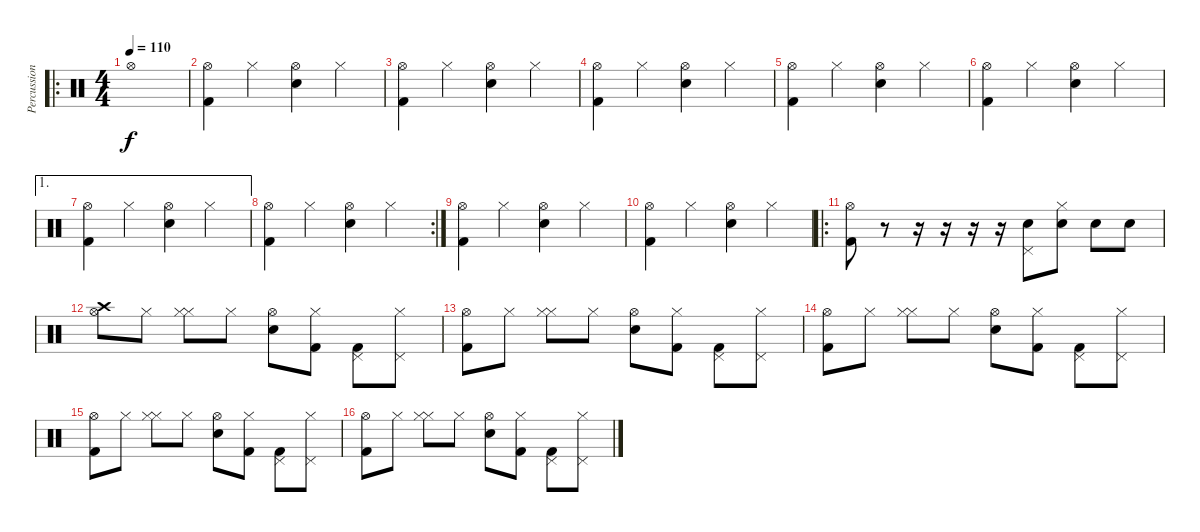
\track ("Percussion" "Percussion") {instrument percussion}
\staff {score}
\articulation defaults
\ro
\ts (4 4)
\tempo 110
\clef neutral
\ks c "Hi-Hat (open)".1{dy f}
|
("Kick (hit) 2" "Hi-Hat (open)").4 "Hi-Hat (closed)".4 ("Snare (hit) 2" "Hi-Hat (open)").4 "Hi-Hat (closed)".4 |
("Kick (hit) 2" "Hi-Hat (open)").4 "Hi-Hat (closed)".4 ("Snare (hit) 2" "Hi-Hat (open)").4 "Hi-Hat (closed)".4 |
("Kick (hit) 2" "Hi-Hat (open)").4 "Hi-Hat (closed)".4 ("Snare (hit) 2" "Hi-Hat (open)").4 "Hi-Hat (closed)".4 |
("Kick (hit) 2" "Hi-Hat (open)").4 "Hi-Hat (closed)".4 ("Snare (hit) 2" "Hi-Hat (open)").4 "Hi-Hat (closed)".4 |
("Kick (hit) 2" "Hi-Hat (open)").4 "Hi-Hat (closed)".4 ("Snare (hit) 2" "Hi-Hat (open)").4 "Hi-Hat (closed)".4 |
\ae 1
("Kick (hit) 2" "Hi-Hat (open)").4 "Hi-Hat (closed)".4 ("Snare (hit) 2" "Hi-Hat (open)").4 "Hi-Hat (closed)".4 |
\rc 2
("Kick (hit) 2" "Hi-Hat (open)").4 "Hi-Hat (closed)".4 ("Snare (hit) 2" "Hi-Hat (open)").4 "Hi-Hat (closed)".4 |
("Kick (hit) 2" "Hi-Hat (open)").4 "Hi-Hat (closed)".4 ("Snare (hit) 2" "Hi-Hat (open)").4 "Hi-Hat (closed)".4 |
("Kick (hit) 2" "Hi-Hat (open)").4 "Hi-Hat (closed)".4 ("Snare (hit) 2" "Hi-Hat (open)").4 "Hi-Hat (closed)".4 |
\ro
("Kick (hit) 2" "Hi-Hat (open)").8 r.8 r.16 r.16 r.16 r.16 ("Snare (hit) 2" "Pedal Hi-Hat (hit)").8 ("Snare (hit) 2" "Hi-Hat (closed)").8 "Snare (hit) 2".8 "Snare (hit) 2".8 |
("Crash high (hit)" "Hi-Hat (open)").8 "Hi-Hat (closed)".8 ("Hi-Hat (closed)" "Hi-Hat (closed)").8 "Hi-Hat (closed)".8 ("Snare (hit) 2" "Hi-Hat (open)").8 ("Kick (hit) 2" "Hi-Hat (closed)").8 ("Kick (hit) 2" "Pedal Hi-Hat (hit)").8 ("Pedal Hi-Hat (hit)" "Hi-Hat (closed)").8 |
("Kick (hit) 2" "Hi-Hat (open)").8 "Hi-Hat (closed)".8 ("Hi-Hat (closed)" "Hi-Hat (closed)").8 "Hi-Hat (closed)".8 ("Snare (hit) 2" "Hi-Hat (open)").8 ("Kick (hit) 2" "Hi-Hat (closed)").8 ("Kick (hit) 2" "Pedal Hi-Hat (hit)").8 ("Pedal Hi-Hat (hit)" "Hi-Hat (closed)").8 |
("Kick (hit) 2" "Hi-Hat (open)").8 "Hi-Hat (closed)".8 ("Hi-Hat (closed)" "Hi-Hat (closed)").8 "Hi-Hat (closed)".8 ("Snare (hit) 2" "Hi-Hat (open)").8 ("Kick (hit) 2" "Hi-Hat (closed)").8 ("Kick (hit) 2" "Pedal Hi-Hat (hit)").8 ("Pedal Hi-Hat (hit)" "Hi-Hat (closed)").8 |
("Kick (hit) 2" "Hi-Hat (open)").8 "Hi-Hat (closed)".8 ("Hi-Hat (closed)" "Hi-Hat (closed)").8 "Hi-Hat (closed)".8 ("Snare (hit) 2" "Hi-Hat (open)").8 ("Kick (hit) 2" "Hi-Hat (closed)").8 ("Kick (hit) 2" "Pedal Hi-Hat (hit)").8 ("Pedal Hi-Hat (hit)" "Hi-Hat (closed)").8 |
("Kick (hit) 2" "Hi-Hat (open)").8 "Hi-Hat (closed)".8 ("Hi-Hat (closed)" "Hi-Hat (closed)").8 "Hi-Hat (closed)".8 ("Snare (hit) 2" "Hi-Hat (open)").8 ("Kick (hit) 2" "Hi-Hat (closed)").8 ("Kick (hit) 2" "Pedal Hi-Hat (hit)").8 ("Pedal Hi-Hat (hit)" "Hi-Hat (closed)").8
